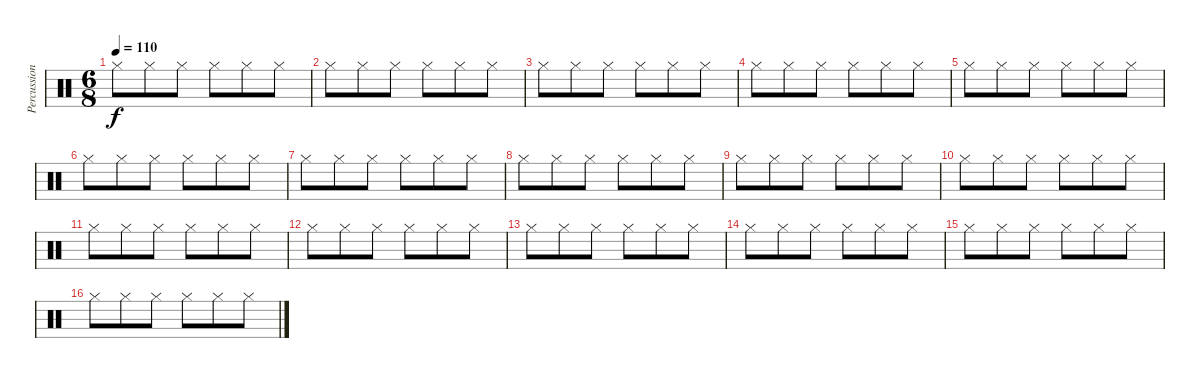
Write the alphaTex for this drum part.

\track ("Percussion" "Percussion") {instrument percussion}
\staff {score}
\articulation defaults
\ts (6 8)
\tempo 110
\clef neutral
\ks c "Hi-Hat (closed)".8{dy f} "Hi-Hat (closed)".8 "Hi-Hat (closed)".8 "Hi-Hat (closed)".8 "Hi-Hat (closed)".8 "Hi-Hat (closed)".8
|
"Hi-Hat (closed)".8 "Hi-Hat (closed)".8 "Hi-Hat (closed)".8 "Hi-Hat (closed)".8 "Hi-Hat (closed)".8 "Hi-Hat (closed)".8 |
"Hi-Hat (closed)".8 "Hi-Hat (closed)".8 "Hi-Hat (closed)".8 "Hi-Hat (closed)".8 "Hi-Hat (closed)".8 "Hi-Hat (closed)".8 |
"Hi-Hat (closed)".8 "Hi-Hat (closed)".8 "Hi-Hat (closed)".8 "Hi-Hat (closed)".8 "Hi-Hat (closed)".8 "Hi-Hat (closed)".8 |
"Hi-Hat (closed)".8 "Hi-Hat (closed)".8 "Hi-Hat (closed)".8 "Hi-Hat (closed)".8 "Hi-Hat (closed)".8 "Hi-Hat (closed)".8 |
"Hi-Hat (closed)".8 "Hi-Hat (closed)".8 "Hi-Hat (closed)".8 "Hi-Hat (closed)".8 "Hi-Hat (closed)".8 "Hi-Hat (closed)".8 |
"Hi-Hat (closed)".8 "Hi-Hat (closed)".8 "Hi-Hat (closed)".8 "Hi-Hat (closed)".8 "Hi-Hat (closed)".8 "Hi-Hat (closed)".8 |
"Hi-Hat (closed)".8 "Hi-Hat (closed)".8 "Hi-Hat (closed)".8 "Hi-Hat (closed)".8 "Hi-Hat (closed)".8 "Hi-Hat (closed)".8 |
"Hi-Hat (closed)".8 "Hi-Hat (closed)".8 "Hi-Hat (closed)".8 "Hi-Hat (closed)".8 "Hi-Hat (closed)".8 "Hi-Hat (closed)".8 |
"Hi-Hat (closed)".8 "Hi-Hat (closed)".8 "Hi-Hat (closed)".8 "Hi-Hat (closed)".8 "Hi-Hat (closed)".8 "Hi-Hat (closed)".8 |
"Hi-Hat (closed)".8 "Hi-Hat (closed)".8 "Hi-Hat (closed)".8 "Hi-Hat (closed)".8 "Hi-Hat (closed)".8 "Hi-Hat (closed)".8 |
"Hi-Hat (closed)".8 "Hi-Hat (closed)".8 "Hi-Hat (closed)".8 "Hi-Hat (closed)".8 "Hi-Hat (closed)".8 "Hi-Hat (closed)".8 |
"Hi-Hat (closed)".8 "Hi-Hat (closed)".8 "Hi-Hat (closed)".8 "Hi-Hat (closed)".8 "Hi-Hat (closed)".8 "Hi-Hat (closed)".8 |
"Hi-Hat (closed)".8 "Hi-Hat (closed)".8 "Hi-Hat (closed)".8 "Hi-Hat (closed)".8 "Hi-Hat (closed)".8 "Hi-Hat (closed)".8 |
"Hi-Hat (closed)".8 "Hi-Hat (closed)".8 "Hi-Hat (closed)".8 "Hi-Hat (closed)".8 "Hi-Hat (closed)".8 "Hi-Hat (closed)".8 |
"Hi-Hat (closed)".8 "Hi-Hat (closed)".8 "Hi-Hat (closed)".8 "Hi-Hat (closed)".8 "Hi-Hat (closed)".8 "Hi-Hat (closed)".8
